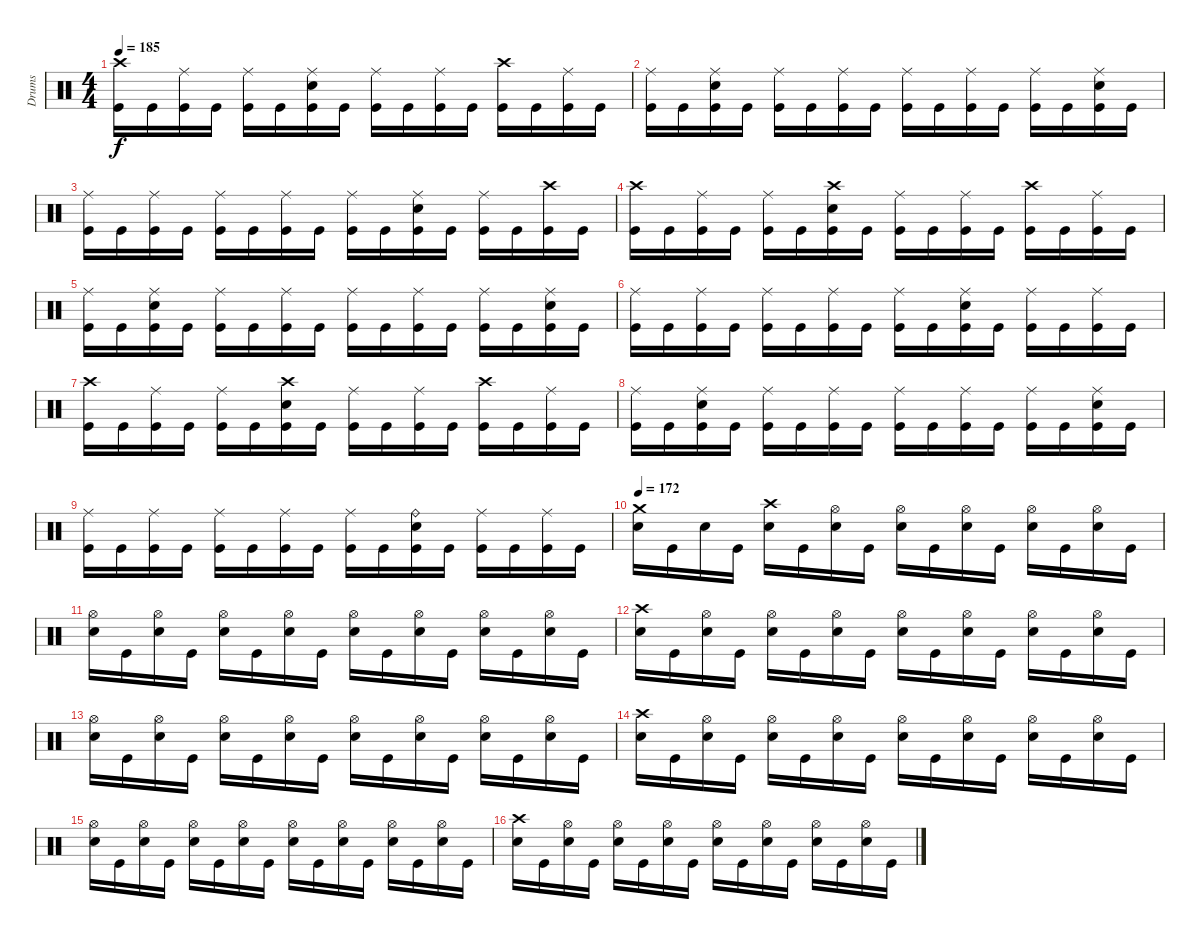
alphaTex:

\track ("Drums" "Drums") {instrument percussion}
\staff {score}
\articulation defaults
\ts (4 4)
\tempo 185
\clef neutral
\ks c
("Crash high (hit)" "Kick (hit)").16{dy f} "Kick (hit)".16 ("Ride (middle)" "Kick (hit)").16 "Kick (hit)".16 ("Ride (middle)" "Kick (hit)").16 "Kick (hit)".16 ("Ride (middle)" "Electric Snare (hit)" "Kick (hit)").16 "Kick (hit)".16 ("Ride (middle)" "Kick (hit)").16 "Kick (hit)".16 ("Ride (middle)" "Kick (hit)").16 "Kick (hit)".16 ("Crash high (hit)" "Kick (hit)").16 "Kick (hit)".16 ("Ride (middle)" "Kick (hit)").16 "Kick (hit)".16 |
("Ride (middle)" "Kick (hit)").16 "Kick (hit)".16 ("Ride (middle)" "Electric Snare (hit)" "Kick (hit)").16 "Kick (hit)".16 ("Ride (middle)" "Kick (hit)").16 "Kick (hit)".16 ("Ride (middle)" "Kick (hit)").16 "Kick (hit)".16 ("Ride (middle)" "Kick (hit)").16 "Kick (hit)".16 ("Ride (middle)" "Kick (hit)").16 "Kick (hit)".16 ("Ride (middle)" "Kick (hit)").16 "Kick (hit)".16 ("Ride (middle)" "Electric Snare (hit)" "Kick (hit)").16 "Kick (hit)".16 |
("Ride (middle)" "Kick (hit)").16 "Kick (hit)".16 ("Ride (middle)" "Kick (hit)").16 "Kick (hit)".16 ("Ride (middle)" "Kick (hit)").16 "Kick (hit)".16 ("Ride (middle)" "Kick (hit)").16 "Kick (hit)".16 ("Ride (middle)" "Kick (hit)").16 "Kick (hit)".16 ("Ride (middle)" "Electric Snare (hit)" "Kick (hit)").16 "Kick (hit)".16 ("Ride (middle)" "Kick (hit)").16 "Kick (hit)".16 ("Crash high (hit)" "Kick (hit)").16 "Kick (hit)".16 |
("Crash high (hit)" "Kick (hit)").16 "Kick (hit)".16 ("Ride (middle)" "Kick (hit)").16 "Kick (hit)".16 ("Ride (middle)" "Kick (hit)").16 "Kick (hit)".16 ("Crash high (hit)" "Electric Snare (hit)" "Kick (hit)").16 "Kick (hit)".16 ("Ride (middle)" "Kick (hit)").16 "Kick (hit)".16 ("Ride (middle)" "Kick (hit)").16 "Kick (hit)".16 ("Crash high (hit)" "Kick (hit)").16 "Kick (hit)".16 ("Ride (middle)" "Kick (hit)").16 "Kick (hit)".16 |
("Ride (middle)" "Kick (hit)").16 "Kick (hit)".16 ("Ride (middle)" "Electric Snare (hit)" "Kick (hit)").16 "Kick (hit)".16 ("Ride (middle)" "Kick (hit)").16 "Kick (hit)".16 ("Ride (middle)" "Kick (hit)").16 "Kick (hit)".16 ("Ride (middle)" "Kick (hit)").16 "Kick (hit)".16 ("Ride (middle)" "Kick (hit)").16 "Kick (hit)".16 ("Ride (middle)" "Kick (hit)").16 "Kick (hit)".16 ("Ride (middle)" "Electric Snare (hit)" "Kick (hit)").16 "Kick (hit)".16 |
("Ride (middle)" "Kick (hit)").16 "Kick (hit)".16 ("Ride (middle)" "Kick (hit)").16 "Kick (hit)".16 ("Ride (middle)" "Kick (hit)").16 "Kick (hit)".16 ("Ride (middle)" "Kick (hit)").16 "Kick (hit)".16 ("Ride (middle)" "Kick (hit)").16 "Kick (hit)".16 ("Ride (middle)" "Electric Snare (hit)" "Kick (hit)").16 "Kick (hit)".16 ("Ride (middle)" "Kick (hit)").16 "Kick (hit)".16 ("Ride (middle)" "Kick (hit)").16 "Kick (hit)".16 |
("Crash high (hit)" "Kick (hit)").16 "Kick (hit)".16 ("Ride (middle)" "Kick (hit)").16 "Kick (hit)".16 ("Ride (middle)" "Kick (hit)").16 "Kick (hit)".16 ("Crash high (hit)" "Electric Snare (hit)" "Kick (hit)").16 "Kick (hit)".16 ("Ride (middle)" "Kick (hit)").16 "Kick (hit)".16 ("Ride (middle)" "Kick (hit)").16 "Kick (hit)".16 ("Crash high (hit)" "Kick (hit)").16 "Kick (hit)".16 ("Ride (middle)" "Kick (hit)").16 "Kick (hit)".16 |
("Ride (middle)" "Kick (hit)").16 "Kick (hit)".16 ("Ride (middle)" "Electric Snare (hit)" "Kick (hit)").16 "Kick (hit)".16 ("Ride (middle)" "Kick (hit)").16 "Kick (hit)".16 ("Ride (middle)" "Kick (hit)").16 "Kick (hit)".16 ("Ride (middle)" "Kick (hit)").16 "Kick (hit)".16 ("Ride (middle)" "Kick (hit)").16 "Kick (hit)".16 ("Ride (middle)" "Kick (hit)").16 "Kick (hit)".16 ("Ride (middle)" "Electric Snare (hit)" "Kick (hit)").16 "Kick (hit)".16 |
("Ride (middle)" "Kick (hit)").16 "Kick (hit)".16 ("Ride (middle)" "Kick (hit)").16 "Kick (hit)".16 ("Ride (middle)" "Kick (hit)").16 "Kick (hit)".16 ("Ride (middle)" "Kick (hit)").16 "Kick (hit)".16 ("Ride (middle)" "Kick (hit)").16 "Kick (hit)".16 ("Ride (bell)" "Electric Snare (hit)" "Kick (hit)").16 "Kick (hit)".16 ("Ride (middle)" "Kick (hit)").16 "Kick (hit)".16 ("Ride (middle)" "Kick (hit)").16 "Kick (hit)".16 |
\tempo 172
("Crash medium (hit)" "Electric Snare (hit)").16 "Kick (hit)".16 "Electric Snare (hit)".16 "Kick (hit)".16 ("Crash high (hit)" "Electric Snare (hit)").16 "Kick (hit)".16 ("Hi-Hat (open)" "Electric Snare (hit)").16 "Kick (hit)".16 ("Hi-Hat (open)" "Electric Snare (hit)").16 "Kick (hit)".16 ("Hi-Hat (open)" "Electric Snare (hit)").16 "Kick (hit)".16 ("Hi-Hat (open)" "Electric Snare (hit)").16 "Kick (hit)".16 ("Hi-Hat (open)" "Electric Snare (hit)").16 "Kick (hit)".16 |
("Hi-Hat (open)" "Electric Snare (hit)").16 "Kick (hit)".16 ("Hi-Hat (open)" "Electric Snare (hit)").16 "Kick (hit)".16 ("Hi-Hat (open)" "Electric Snare (hit)").16 "Kick (hit)".16 ("Hi-Hat (open)" "Electric Snare (hit)").16 "Kick (hit)".16 ("Hi-Hat (open)" "Electric Snare (hit)").16 "Kick (hit)".16 ("Hi-Hat (open)" "Electric Snare (hit)").16 "Kick (hit)".16 ("Hi-Hat (open)" "Electric Snare (hit)").16 "Kick (hit)".16 ("Hi-Hat (open)" "Electric Snare (hit)").16 "Kick (hit)".16 |
("Crash high (hit)" "Electric Snare (hit)").16 "Kick (hit)".16 ("Hi-Hat (open)" "Electric Snare (hit)").16 "Kick (hit)".16 ("Hi-Hat (open)" "Electric Snare (hit)").16 "Kick (hit)".16 ("Hi-Hat (open)" "Electric Snare (hit)").16 "Kick (hit)".16 ("Hi-Hat (open)" "Electric Snare (hit)").16 "Kick (hit)".16 ("Hi-Hat (open)" "Electric Snare (hit)").16 "Kick (hit)".16 ("Hi-Hat (open)" "Electric Snare (hit)").16 "Kick (hit)".16 ("Hi-Hat (open)" "Electric Snare (hit)").16 "Kick (hit)".16 |
("Hi-Hat (open)" "Electric Snare (hit)").16 "Kick (hit)".16 ("Hi-Hat (open)" "Electric Snare (hit)").16 "Kick (hit)".16 ("Hi-Hat (open)" "Electric Snare (hit)").16 "Kick (hit)".16 ("Hi-Hat (open)" "Electric Snare (hit)").16 "Kick (hit)".16 ("Hi-Hat (open)" "Electric Snare (hit)").16 "Kick (hit)".16 ("Hi-Hat (open)" "Electric Snare (hit)").16 "Kick (hit)".16 ("Hi-Hat (open)" "Electric Snare (hit)").16 "Kick (hit)".16 ("Hi-Hat (open)" "Electric Snare (hit)").16 "Kick (hit)".16 |
("Crash high (hit)" "Electric Snare (hit)").16 "Kick (hit)".16 ("Hi-Hat (open)" "Electric Snare (hit)").16 "Kick (hit)".16 ("Hi-Hat (open)" "Electric Snare (hit)").16 "Kick (hit)".16 ("Hi-Hat (open)" "Electric Snare (hit)").16 "Kick (hit)".16 ("Hi-Hat (open)" "Electric Snare (hit)").16 "Kick (hit)".16 ("Hi-Hat (open)" "Electric Snare (hit)").16 "Kick (hit)".16 ("Hi-Hat (open)" "Electric Snare (hit)").16 "Kick (hit)".16 ("Hi-Hat (open)" "Electric Snare (hit)").16 "Kick (hit)".16 |
("Hi-Hat (open)" "Electric Snare (hit)").16 "Kick (hit)".16 ("Hi-Hat (open)" "Electric Snare (hit)").16 "Kick (hit)".16 ("Hi-Hat (open)" "Electric Snare (hit)").16 "Kick (hit)".16 ("Hi-Hat (open)" "Electric Snare (hit)").16 "Kick (hit)".16 ("Hi-Hat (open)" "Electric Snare (hit)").16 "Kick (hit)".16 ("Hi-Hat (open)" "Electric Snare (hit)").16 "Kick (hit)".16 ("Hi-Hat (open)" "Electric Snare (hit)").16 "Kick (hit)".16 ("Hi-Hat (open)" "Electric Snare (hit)").16 "Kick (hit)".16 |
("Crash high (hit)" "Electric Snare (hit)").16 "Kick (hit)".16 ("Hi-Hat (open)" "Electric Snare (hit)").16 "Kick (hit)".16 ("Hi-Hat (open)" "Electric Snare (hit)").16 "Kick (hit)".16 ("Hi-Hat (open)" "Electric Snare (hit)").16 "Kick (hit)".16 ("Hi-Hat (open)" "Electric Snare (hit)").16 "Kick (hit)".16 ("Hi-Hat (open)" "Electric Snare (hit)").16 "Kick (hit)".16 ("Hi-Hat (open)" "Electric Snare (hit)").16 "Kick (hit)".16 ("Hi-Hat (open)" "Electric Snare (hit)").16 "Kick (hit)".16
